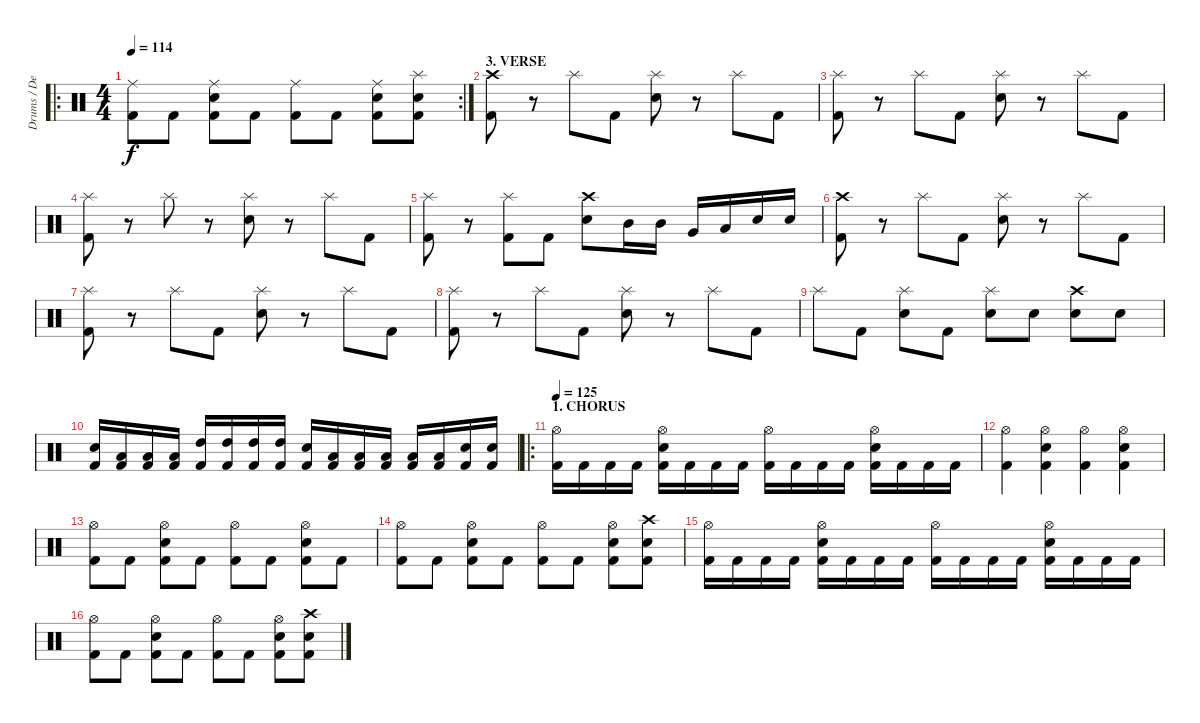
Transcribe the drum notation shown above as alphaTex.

\track ("Drums / Dennis" "Drums / De") {instrument percussion}
\staff {score}
\articulation defaults
\ro
\rc 2
\ts (4 4)
\tempo 114
\clef neutral
\ks c
("Ride (middle)" "Kick (hit) 2").8{dy f} "Kick (hit) 2".8 ("Ride (middle)" "Electric Snare (hit)" "Kick (hit) 2").8 "Kick (hit) 2".8 ("Ride (middle)" "Kick (hit) 2").8 "Kick (hit) 2".8 ("Ride (middle)" "Electric Snare (hit)" "Kick (hit) 2").8 ("Splash (hit)" "Electric Snare (hit)" "Kick (hit) 2").8 |
\section ("" "3. VERSE")
("Kick (hit) 2" "Crash high (hit)").8 r.8 "Splash (hit)".8 "Kick (hit) 2".8 ("Electric Snare (hit)" "Splash (hit)").8 r.8 "Splash (hit)".8 "Kick (hit) 2".8 |
("Kick (hit) 2" "Splash (hit)").8 r.8 "Splash (hit)".8 "Kick (hit) 2".8 ("Electric Snare (hit)" "Splash (hit)").8 r.8 "Splash (hit)".8 "Kick (hit) 2".8 |
("Kick (hit) 2" "Splash (hit)").8 r.8 "Splash (hit)".8 r.8 ("Electric Snare (hit)" "Splash (hit)").8 r.8 "Splash (hit)".8 "Kick (hit) 2".8 |
("Kick (hit) 2" "Splash (hit)").8 r.8 ("Kick (hit) 2" "Splash (hit)").8 "Kick (hit) 2".8 ("Electric Snare (hit)" "Crash high (hit)").8 "Mid Tom (hit)".16 "Mid Tom (hit)".16 "Very Low Tom (hit)".16 "Low Floor Tom (hit)".16 "Electric Snare (hit)".16 "Electric Snare (hit)".16 |
("Kick (hit) 2" "Crash high (hit)").8 r.8 "Splash (hit)".8 "Kick (hit) 2".8 ("Electric Snare (hit)" "Splash (hit)").8 r.8 "Splash (hit)".8 "Kick (hit) 2".8 |
("Kick (hit) 2" "Splash (hit)").8 r.8 "Splash (hit)".8 "Kick (hit) 2".8 ("Electric Snare (hit)" "Splash (hit)").8 r.8 "Splash (hit)".8 "Kick (hit) 2".8 |
("Kick (hit) 2" "Splash (hit)").8 r.8 "Splash (hit)".8 "Kick (hit) 2".8 ("Electric Snare (hit)" "Splash (hit)").8 r.8 "Splash (hit)".8 "Kick (hit) 2".8 |
"Splash (hit)".8 "Kick (hit) 2".8 ("Electric Snare (hit)" "Splash (hit)").8 "Kick (hit) 2".8 ("Electric Snare (hit)" "Splash (hit)").8 "Electric Snare (hit)".8 ("Electric Snare (hit)" "Crash high (hit)").8 "Electric Snare (hit)".8 |
("Electric Snare (hit)" "Kick (hit) 2").16 ("Low Floor Tom (hit)" "Kick (hit) 2").16 ("Low Floor Tom (hit)" "Kick (hit) 2").16 ("Low Floor Tom (hit)" "Kick (hit) 2").16 ("High Tom (hit)" "Kick (hit) 2").16 ("High Tom (hit)" "Kick (hit) 2").16 ("High Tom (hit)" "Kick (hit) 2").16 ("High Tom (hit)" "Kick (hit) 2").16 ("Electric Snare (hit)" "Kick (hit) 2").16 ("Low Tom (hit)" "Kick (hit) 2").16 ("Low Tom (hit)" "Kick (hit) 2").16 ("Low Tom (hit)" "Kick (hit) 2").16 ("Low Floor Tom (hit)" "Kick (hit) 2").16 ("Low Floor Tom (hit)" "Kick (hit) 2").16 ("Electric Snare (hit)" "Kick (hit) 2").16 ("Electric Snare (hit)" "Kick (hit) 2").16 |
\ro
\section ("" "1. CHORUS")
\tempo 125
("Hi-Hat (open)" "Kick (hit) 2").16 "Kick (hit) 2".16 "Kick (hit) 2".16 "Kick (hit) 2".16 ("Hi-Hat (open)" "Electric Snare (hit)" "Kick (hit) 2").16 "Kick (hit) 2".16 "Kick (hit) 2".16 "Kick (hit) 2".16 ("Hi-Hat (open)" "Kick (hit) 2").16 "Kick (hit) 2".16 "Kick (hit) 2".16 "Kick (hit) 2".16 ("Hi-Hat (open)" "Electric Snare (hit)" "Kick (hit) 2").16 "Kick (hit) 2".16 "Kick (hit) 2".16 "Kick (hit) 2".16 |
("Hi-Hat (open)" "Kick (hit) 2").4 ("Hi-Hat (open)" "Electric Snare (hit)" "Kick (hit) 2").4 ("Hi-Hat (open)" "Kick (hit) 2").4 ("Hi-Hat (open)" "Electric Snare (hit)" "Kick (hit) 2").4 |
("Hi-Hat (open)" "Kick (hit) 2").8 "Kick (hit) 2".8 ("Hi-Hat (open)" "Electric Snare (hit)" "Kick (hit) 2").8 "Kick (hit) 2".8 ("Hi-Hat (open)" "Kick (hit) 2").8 "Kick (hit) 2".8 ("Hi-Hat (open)" "Electric Snare (hit)" "Kick (hit) 2").8 "Kick (hit) 2".8 |
("Hi-Hat (open)" "Kick (hit) 2").8 "Kick (hit) 2".8 ("Hi-Hat (open)" "Electric Snare (hit)" "Kick (hit) 2").8 "Kick (hit) 2".8 ("Hi-Hat (open)" "Kick (hit) 2").8 "Kick (hit) 2".8 ("Hi-Hat (open)" "Electric Snare (hit)" "Kick (hit) 2").8 ("Crash high (hit)" "Electric Snare (hit)" "Kick (hit) 2").8 |
("Hi-Hat (open)" "Kick (hit) 2").16 "Kick (hit) 2".16 "Kick (hit) 2".16 "Kick (hit) 2".16 ("Hi-Hat (open)" "Electric Snare (hit)" "Kick (hit) 2").16 "Kick (hit) 2".16 "Kick (hit) 2".16 "Kick (hit) 2".16 ("Hi-Hat (open)" "Kick (hit) 2").16 "Kick (hit) 2".16 "Kick (hit) 2".16 "Kick (hit) 2".16 ("Hi-Hat (open)" "Electric Snare (hit)" "Kick (hit) 2").16 "Kick (hit) 2".16 "Kick (hit) 2".16 "Kick (hit) 2".16 |
("Hi-Hat (open)" "Kick (hit) 2").8 "Kick (hit) 2".8 ("Hi-Hat (open)" "Electric Snare (hit)" "Kick (hit) 2").8 "Kick (hit) 2".8 ("Hi-Hat (open)" "Kick (hit) 2").8 "Kick (hit) 2".8 ("Hi-Hat (open)" "Electric Snare (hit)" "Kick (hit) 2").8 ("Crash high (hit)" "Electric Snare (hit)" "Kick (hit) 2").8
